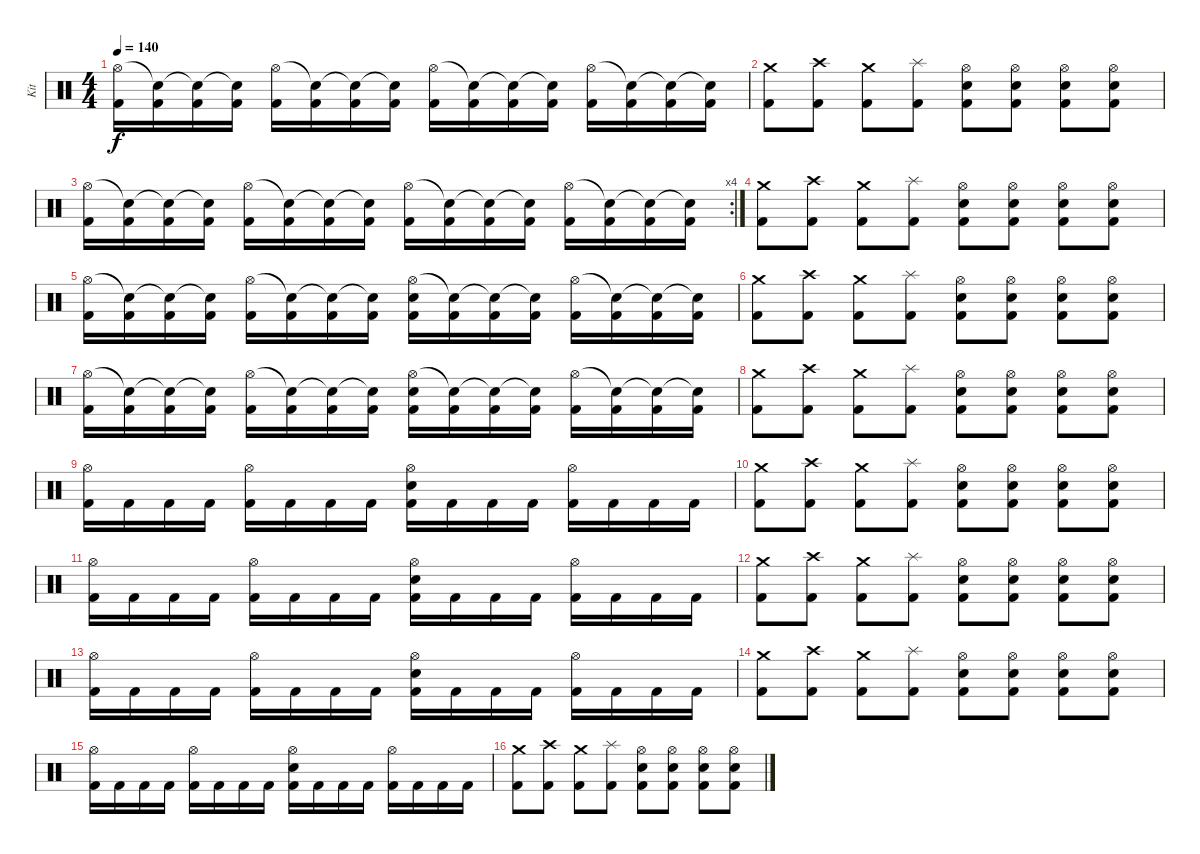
\track ("Kit" "Kit") {instrument percussion}
\staff {score}
\articulation defaults
\ts (4 4)
\tempo 140
\clef neutral
\ks c
("Hi-Hat (open)" "Kick (hit) 2").16{dy f} ("Snare (hit)"{t} "Kick (hit) 2").16 ("Snare (hit)"{t} "Kick (hit) 2").16 ("Snare (hit)"{t} "Kick (hit) 2").16 ("Hi-Hat (open)" "Kick (hit) 2").16 ("Snare (hit)"{t} "Kick (hit) 2").16 ("Snare (hit)"{t} "Kick (hit) 2").16 ("Snare (hit)"{t} "Kick (hit) 2").16 ("Hi-Hat (open)" "Kick (hit) 2").16 ("Snare (hit)"{t} "Kick (hit) 2").16 ("Snare (hit)"{t} "Kick (hit) 2").16 ("Snare (hit)"{t} "Kick (hit) 2").16 ("Hi-Hat (open)" "Kick (hit) 2").16 ("Snare (hit)"{t} "Kick (hit) 2").16 ("Snare (hit)"{t} "Kick (hit) 2").16 ("Snare (hit)"{t} "Kick (hit) 2").16 |
("Crash medium (hit)" "Kick (hit) 2").8 ("Crash high (hit)" "Kick (hit) 2").8 ("Crash medium (hit)" "Kick (hit) 2").8 ("Splash (hit)" "Kick (hit) 2").8 ("Hi-Hat (open)" "Electric Snare (hit)" "Kick (hit) 2").8 ("Hi-Hat (open)" "Electric Snare (hit)" "Kick (hit) 2").8 ("Hi-Hat (open)" "Electric Snare (hit)" "Kick (hit) 2").8 ("Hi-Hat (open)" "Electric Snare (hit)" "Kick (hit) 2").8 |
\rc 4
("Hi-Hat (open)" "Kick (hit) 2").16 ("Snare (hit)"{t} "Kick (hit) 2").16 ("Snare (hit)"{t} "Kick (hit) 2").16 ("Snare (hit)"{t} "Kick (hit) 2").16 ("Hi-Hat (open)" "Kick (hit) 2").16 ("Snare (hit)"{t} "Kick (hit) 2").16 ("Snare (hit)"{t} "Kick (hit) 2").16 ("Snare (hit)"{t} "Kick (hit) 2").16 ("Hi-Hat (open)" "Kick (hit) 2").16 ("Snare (hit)"{t} "Kick (hit) 2").16 ("Snare (hit)"{t} "Kick (hit) 2").16 ("Snare (hit)"{t} "Kick (hit) 2").16 ("Hi-Hat (open)" "Kick (hit) 2").16 ("Snare (hit)"{t} "Kick (hit) 2").16 ("Snare (hit)"{t} "Kick (hit) 2").16 ("Snare (hit)"{t} "Kick (hit) 2").16 |
("Crash medium (hit)" "Kick (hit) 2").8 ("Crash high (hit)" "Kick (hit) 2").8 ("Crash medium (hit)" "Kick (hit) 2").8 ("Splash (hit)" "Kick (hit) 2").8 ("Hi-Hat (open)" "Electric Snare (hit)" "Kick (hit) 2").8 ("Hi-Hat (open)" "Electric Snare (hit)" "Kick (hit) 2").8 ("Hi-Hat (open)" "Electric Snare (hit)" "Kick (hit) 2").8 ("Hi-Hat (open)" "Electric Snare (hit)" "Kick (hit) 2").8 |
("Hi-Hat (open)" "Kick (hit) 2").16 ("Snare (hit)"{t} "Kick (hit) 2").16 ("Snare (hit)"{t} "Kick (hit) 2").16 ("Snare (hit)"{t} "Kick (hit) 2").16 ("Hi-Hat (open)" "Kick (hit) 2").16 ("Snare (hit)"{t} "Kick (hit) 2").16 ("Snare (hit)"{t} "Kick (hit) 2").16 ("Snare (hit)"{t} "Kick (hit) 2").16 ("Hi-Hat (open)" "Electric Snare (hit)" "Kick (hit) 2").16 ("Snare (hit)"{t} "Kick (hit) 2").16 ("Snare (hit)"{t} "Kick (hit) 2").16 ("Snare (hit)"{t} "Kick (hit) 2").16 ("Hi-Hat (open)" "Kick (hit) 2").16 ("Snare (hit)"{t} "Kick (hit) 2").16 ("Snare (hit)"{t} "Kick (hit) 2").16 ("Snare (hit)"{t} "Kick (hit) 2").16 |
("Crash medium (hit)" "Kick (hit) 2").8 ("Crash high (hit)" "Kick (hit) 2").8 ("Crash medium (hit)" "Kick (hit) 2").8 ("Splash (hit)" "Kick (hit) 2").8 ("Hi-Hat (open)" "Electric Snare (hit)" "Kick (hit) 2").8 ("Hi-Hat (open)" "Electric Snare (hit)" "Kick (hit) 2").8 ("Hi-Hat (open)" "Electric Snare (hit)" "Kick (hit) 2").8 ("Hi-Hat (open)" "Electric Snare (hit)" "Kick (hit) 2").8 |
("Hi-Hat (open)" "Kick (hit) 2").16 ("Snare (hit)"{t} "Kick (hit) 2").16 ("Snare (hit)"{t} "Kick (hit) 2").16 ("Snare (hit)"{t} "Kick (hit) 2").16 ("Hi-Hat (open)" "Kick (hit) 2").16 ("Snare (hit)"{t} "Kick (hit) 2").16 ("Snare (hit)"{t} "Kick (hit) 2").16 ("Snare (hit)"{t} "Kick (hit) 2").16 ("Hi-Hat (open)" "Electric Snare (hit)" "Kick (hit) 2").16 ("Snare (hit)"{t} "Kick (hit) 2").16 ("Snare (hit)"{t} "Kick (hit) 2").16 ("Snare (hit)"{t} "Kick (hit) 2").16 ("Hi-Hat (open)" "Kick (hit) 2").16 ("Snare (hit)"{t} "Kick (hit) 2").16 ("Snare (hit)"{t} "Kick (hit) 2").16 ("Snare (hit)"{t} "Kick (hit) 2").16 |
("Crash medium (hit)" "Kick (hit) 2").8 ("Crash high (hit)" "Kick (hit) 2").8 ("Crash medium (hit)" "Kick (hit) 2").8 ("Splash (hit)" "Kick (hit) 2").8 ("Hi-Hat (open)" "Electric Snare (hit)" "Kick (hit) 2").8 ("Hi-Hat (open)" "Electric Snare (hit)" "Kick (hit) 2").8 ("Hi-Hat (open)" "Electric Snare (hit)" "Kick (hit) 2").8 ("Hi-Hat (open)" "Electric Snare (hit)" "Kick (hit) 2").8 |
("Hi-Hat (open)" "Kick (hit) 2").16 "Kick (hit) 2".16 "Kick (hit) 2".16 "Kick (hit) 2".16 ("Hi-Hat (open)" "Kick (hit) 2").16 "Kick (hit) 2".16 "Kick (hit) 2".16 "Kick (hit) 2".16 ("Hi-Hat (open)" "Electric Snare (hit)" "Kick (hit) 2").16 "Kick (hit) 2".16 "Kick (hit) 2".16 "Kick (hit) 2".16 ("Hi-Hat (open)" "Kick (hit) 2").16 "Kick (hit) 2".16 "Kick (hit) 2".16 "Kick (hit) 2".16 |
("Crash medium (hit)" "Kick (hit) 2").8{volume 11} ("Crash high (hit)" "Kick (hit) 2").8 ("Crash medium (hit)" "Kick (hit) 2").8 ("Splash (hit)" "Kick (hit) 2").8 ("Hi-Hat (open)" "Electric Snare (hit)" "Kick (hit) 2").8 ("Hi-Hat (open)" "Electric Snare (hit)" "Kick (hit) 2").8 ("Hi-Hat (open)" "Electric Snare (hit)" "Kick (hit) 2").8 ("Hi-Hat (open)" "Electric Snare (hit)" "Kick (hit) 2").8 |
("Hi-Hat (open)" "Kick (hit) 2").16 "Kick (hit) 2".16 "Kick (hit) 2".16 "Kick (hit) 2".16 ("Hi-Hat (open)" "Kick (hit) 2").16 "Kick (hit) 2".16 "Kick (hit) 2".16 "Kick (hit) 2".16 ("Hi-Hat (open)" "Electric Snare (hit)" "Kick (hit) 2").16 "Kick (hit) 2".16 "Kick (hit) 2".16 "Kick (hit) 2".16 ("Hi-Hat (open)" "Kick (hit) 2").16 "Kick (hit) 2".16 "Kick (hit) 2".16 "Kick (hit) 2".16 |
("Crash medium (hit)" "Kick (hit) 2").8 ("Crash high (hit)" "Kick (hit) 2").8 ("Crash medium (hit)" "Kick (hit) 2").8 ("Splash (hit)" "Kick (hit) 2").8 ("Hi-Hat (open)" "Electric Snare (hit)" "Kick (hit) 2").8 ("Hi-Hat (open)" "Electric Snare (hit)" "Kick (hit) 2").8 ("Hi-Hat (open)" "Electric Snare (hit)" "Kick (hit) 2").8 ("Hi-Hat (open)" "Electric Snare (hit)" "Kick (hit) 2").8 |
("Hi-Hat (open)" "Kick (hit) 2").16 "Kick (hit) 2".16 "Kick (hit) 2".16 "Kick (hit) 2".16 ("Hi-Hat (open)" "Kick (hit) 2").16 "Kick (hit) 2".16 "Kick (hit) 2".16 "Kick (hit) 2".16 ("Hi-Hat (open)" "Electric Snare (hit)" "Kick (hit) 2").16 "Kick (hit) 2".16 "Kick (hit) 2".16 "Kick (hit) 2".16 ("Hi-Hat (open)" "Kick (hit) 2").16 "Kick (hit) 2".16 "Kick (hit) 2".16 "Kick (hit) 2".16 |
("Crash medium (hit)" "Kick (hit) 2").8{volume 8} ("Crash high (hit)" "Kick (hit) 2").8 ("Crash medium (hit)" "Kick (hit) 2").8 ("Splash (hit)" "Kick (hit) 2").8 ("Hi-Hat (open)" "Electric Snare (hit)" "Kick (hit) 2").8 ("Hi-Hat (open)" "Electric Snare (hit)" "Kick (hit) 2").8 ("Hi-Hat (open)" "Electric Snare (hit)" "Kick (hit) 2").8 ("Hi-Hat (open)" "Electric Snare (hit)" "Kick (hit) 2").8 |
("Hi-Hat (open)" "Kick (hit) 2").16 "Kick (hit) 2".16 "Kick (hit) 2".16 "Kick (hit) 2".16 ("Hi-Hat (open)" "Kick (hit) 2").16 "Kick (hit) 2".16 "Kick (hit) 2".16 "Kick (hit) 2".16 ("Hi-Hat (open)" "Electric Snare (hit)" "Kick (hit) 2").16 "Kick (hit) 2".16 "Kick (hit) 2".16 "Kick (hit) 2".16 ("Hi-Hat (open)" "Kick (hit) 2").16 "Kick (hit) 2".16 "Kick (hit) 2".16 "Kick (hit) 2".16 |
("Crash medium (hit)" "Kick (hit) 2").8{volume 6} ("Crash high (hit)" "Kick (hit) 2").8 ("Crash medium (hit)" "Kick (hit) 2").8 ("Splash (hit)" "Kick (hit) 2").8 ("Hi-Hat (open)" "Electric Snare (hit)" "Kick (hit) 2").8 ("Hi-Hat (open)" "Electric Snare (hit)" "Kick (hit) 2").8 ("Hi-Hat (open)" "Electric Snare (hit)" "Kick (hit) 2").8 ("Hi-Hat (open)" "Electric Snare (hit)" "Kick (hit) 2").8
